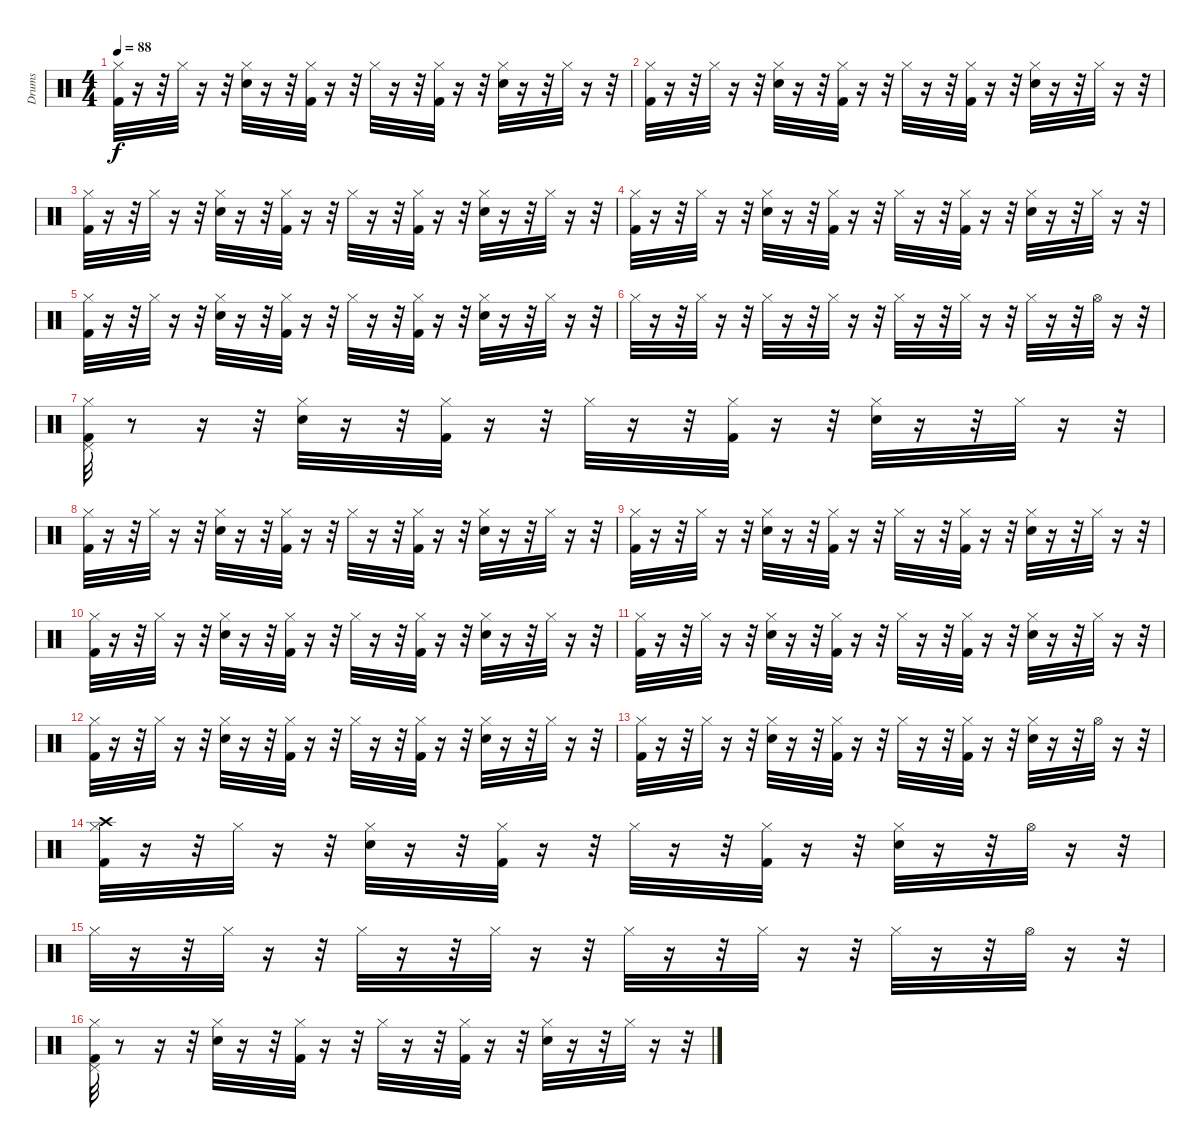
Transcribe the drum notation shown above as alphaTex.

\track ("Drums" "Drums") {instrument percussion}
\staff {score}
\articulation defaults
\ts (4 4)
\tempo 88
\clef neutral
\ks c
("Hi-Hat (closed)" "Kick (hit) 2").32{dy f} r.16 r.32 "Hi-Hat (closed)".32 r.16 r.32 ("Hi-Hat (closed)" "Electric Snare (hit)").32 r.16 r.32 ("Kick (hit) 2" "Hi-Hat (closed)").32 r.16 r.32 "Hi-Hat (closed)".32 r.16 r.32 ("Kick (hit) 2" "Hi-Hat (closed)").32 r.16 r.32 ("Hi-Hat (closed)" "Electric Snare (hit)").32 r.16 r.32 "Hi-Hat (closed)".32 r.16 r.32 |
("Hi-Hat (closed)" "Kick (hit) 2").32 r.16 r.32 "Hi-Hat (closed)".32 r.16 r.32 ("Hi-Hat (closed)" "Electric Snare (hit)").32 r.16 r.32 ("Kick (hit) 2" "Hi-Hat (closed)").32 r.16 r.32 "Hi-Hat (closed)".32 r.16 r.32 ("Kick (hit) 2" "Hi-Hat (closed)").32 r.16 r.32 ("Hi-Hat (closed)" "Electric Snare (hit)").32 r.16 r.32 "Hi-Hat (closed)".32 r.16 r.32 |
("Hi-Hat (closed)" "Kick (hit) 2").32 r.16 r.32 "Hi-Hat (closed)".32 r.16 r.32 ("Hi-Hat (closed)" "Electric Snare (hit)").32 r.16 r.32 ("Kick (hit) 2" "Hi-Hat (closed)").32 r.16 r.32 "Hi-Hat (closed)".32 r.16 r.32 ("Kick (hit) 2" "Hi-Hat (closed)").32 r.16 r.32 ("Hi-Hat (closed)" "Electric Snare (hit)").32 r.16 r.32 "Hi-Hat (closed)".32 r.16 r.32 |
("Hi-Hat (closed)" "Kick (hit) 2").32 r.16 r.32 "Hi-Hat (closed)".32 r.16 r.32 ("Hi-Hat (closed)" "Electric Snare (hit)").32 r.16 r.32 ("Kick (hit) 2" "Hi-Hat (closed)").32 r.16 r.32 "Hi-Hat (closed)".32 r.16 r.32 ("Kick (hit) 2" "Hi-Hat (closed)").32 r.16 r.32 ("Hi-Hat (closed)" "Electric Snare (hit)").32 r.16 r.32 "Hi-Hat (closed)".32 r.16 r.32 |
("Hi-Hat (closed)" "Kick (hit) 2").32 r.16 r.32 "Hi-Hat (closed)".32 r.16 r.32 ("Hi-Hat (closed)" "Electric Snare (hit)").32 r.16 r.32 ("Kick (hit) 2" "Hi-Hat (closed)").32 r.16 r.32 "Hi-Hat (closed)".32 r.16 r.32 ("Kick (hit) 2" "Hi-Hat (closed)").32 r.16 r.32 ("Hi-Hat (closed)" "Electric Snare (hit)").32 r.16 r.32 "Hi-Hat (closed)".32 r.16 r.32 |
"Hi-Hat (closed)".32 r.16 r.32 "Hi-Hat (closed)".32 r.16 r.32 "Hi-Hat (closed)".32 r.16 r.32 "Hi-Hat (closed)".32 r.16 r.32 "Hi-Hat (closed)".32 r.16 r.32 "Hi-Hat (closed)".32 r.16 r.32 "Hi-Hat (closed)".32 r.16 r.32 "Hi-Hat (open)".32 r.16 r.32 |
("Hi-Hat (closed)" "Pedal Hi-Hat (hit)" "Kick (hit) 2").32 r.8 r.16 r.32 ("Hi-Hat (closed)" "Electric Snare (hit)").32 r.16 r.32 ("Kick (hit) 2" "Hi-Hat (closed)").32 r.16 r.32 "Hi-Hat (closed)".32 r.16 r.32 ("Kick (hit) 2" "Hi-Hat (closed)").32 r.16 r.32 ("Hi-Hat (closed)" "Electric Snare (hit)").32 r.16 r.32 "Hi-Hat (closed)".32 r.16 r.32 |
("Hi-Hat (closed)" "Kick (hit) 2").32 r.16 r.32 "Hi-Hat (closed)".32 r.16 r.32 ("Hi-Hat (closed)" "Electric Snare (hit)").32 r.16 r.32 ("Kick (hit) 2" "Hi-Hat (closed)").32 r.16 r.32 "Hi-Hat (closed)".32 r.16 r.32 ("Kick (hit) 2" "Hi-Hat (closed)").32 r.16 r.32 ("Hi-Hat (closed)" "Electric Snare (hit)").32 r.16 r.32 "Hi-Hat (closed)".32 r.16 r.32 |
("Hi-Hat (closed)" "Kick (hit) 2").32 r.16 r.32 "Hi-Hat (closed)".32 r.16 r.32 ("Hi-Hat (closed)" "Electric Snare (hit)").32 r.16 r.32 ("Kick (hit) 2" "Hi-Hat (closed)").32 r.16 r.32 "Hi-Hat (closed)".32 r.16 r.32 ("Kick (hit) 2" "Hi-Hat (closed)").32 r.16 r.32 ("Hi-Hat (closed)" "Electric Snare (hit)").32 r.16 r.32 "Hi-Hat (closed)".32 r.16 r.32 |
("Hi-Hat (closed)" "Kick (hit) 2").32 r.16 r.32 "Hi-Hat (closed)".32 r.16 r.32 ("Hi-Hat (closed)" "Electric Snare (hit)").32 r.16 r.32 ("Kick (hit) 2" "Hi-Hat (closed)").32 r.16 r.32 "Hi-Hat (closed)".32 r.16 r.32 ("Kick (hit) 2" "Hi-Hat (closed)").32 r.16 r.32 ("Hi-Hat (closed)" "Electric Snare (hit)").32 r.16 r.32 "Hi-Hat (closed)".32 r.16 r.32 |
("Hi-Hat (closed)" "Kick (hit) 2").32 r.16 r.32 "Hi-Hat (closed)".32 r.16 r.32 ("Hi-Hat (closed)" "Electric Snare (hit)").32 r.16 r.32 ("Kick (hit) 2" "Hi-Hat (closed)").32 r.16 r.32 "Hi-Hat (closed)".32 r.16 r.32 ("Kick (hit) 2" "Hi-Hat (closed)").32 r.16 r.32 ("Hi-Hat (closed)" "Electric Snare (hit)").32 r.16 r.32 "Hi-Hat (closed)".32 r.16 r.32 |
("Hi-Hat (closed)" "Kick (hit) 2").32 r.16 r.32 "Hi-Hat (closed)".32 r.16 r.32 ("Hi-Hat (closed)" "Electric Snare (hit)").32 r.16 r.32 ("Kick (hit) 2" "Hi-Hat (closed)").32 r.16 r.32 "Hi-Hat (closed)".32 r.16 r.32 ("Kick (hit) 2" "Hi-Hat (closed)").32 r.16 r.32 ("Hi-Hat (closed)" "Electric Snare (hit)").32 r.16 r.32 "Hi-Hat (closed)".32 r.16 r.32 |
("Hi-Hat (closed)" "Kick (hit) 2").32 r.16 r.32 "Hi-Hat (closed)".32 r.16 r.32 ("Hi-Hat (closed)" "Electric Snare (hit)").32 r.16 r.32 ("Kick (hit) 2" "Hi-Hat (closed)").32 r.16 r.32 "Hi-Hat (closed)".32 r.16 r.32 ("Kick (hit) 2" "Hi-Hat (closed)").32 r.16 r.32 ("Hi-Hat (closed)" "Electric Snare (hit)").32 r.16 r.32 "Hi-Hat (open)".32 r.16 r.32 |
("Crash high (hit)" "Hi-Hat (closed)" "Kick (hit) 2").32 r.16 r.32 "Hi-Hat (closed)".32 r.16 r.32 ("Hi-Hat (closed)" "Electric Snare (hit)").32 r.16 r.32 ("Kick (hit) 2" "Hi-Hat (closed)").32 r.16 r.32 "Hi-Hat (closed)".32 r.16 r.32 ("Kick (hit) 2" "Hi-Hat (closed)").32 r.16 r.32 ("Hi-Hat (closed)" "Electric Snare (hit)").32 r.16 r.32 "Hi-Hat (open)".32 r.16 r.32 |
"Hi-Hat (closed)".32 r.16 r.32 "Hi-Hat (closed)".32 r.16 r.32 "Hi-Hat (closed)".32 r.16 r.32 "Hi-Hat (closed)".32 r.16 r.32 "Hi-Hat (closed)".32 r.16 r.32 "Hi-Hat (closed)".32 r.16 r.32 "Hi-Hat (closed)".32 r.16 r.32 "Hi-Hat (open)".32 r.16 r.32 |
("Hi-Hat (closed)" "Pedal Hi-Hat (hit)" "Kick (hit) 2").32 r.8 r.16 r.32 ("Hi-Hat (closed)" "Electric Snare (hit)").32 r.16 r.32 ("Kick (hit) 2" "Hi-Hat (closed)").32 r.16 r.32 "Hi-Hat (closed)".32 r.16 r.32 ("Kick (hit) 2" "Hi-Hat (closed)").32 r.16 r.32 ("Hi-Hat (closed)" "Electric Snare (hit)").32 r.16 r.32 "Hi-Hat (closed)".32 r.16 r.32
